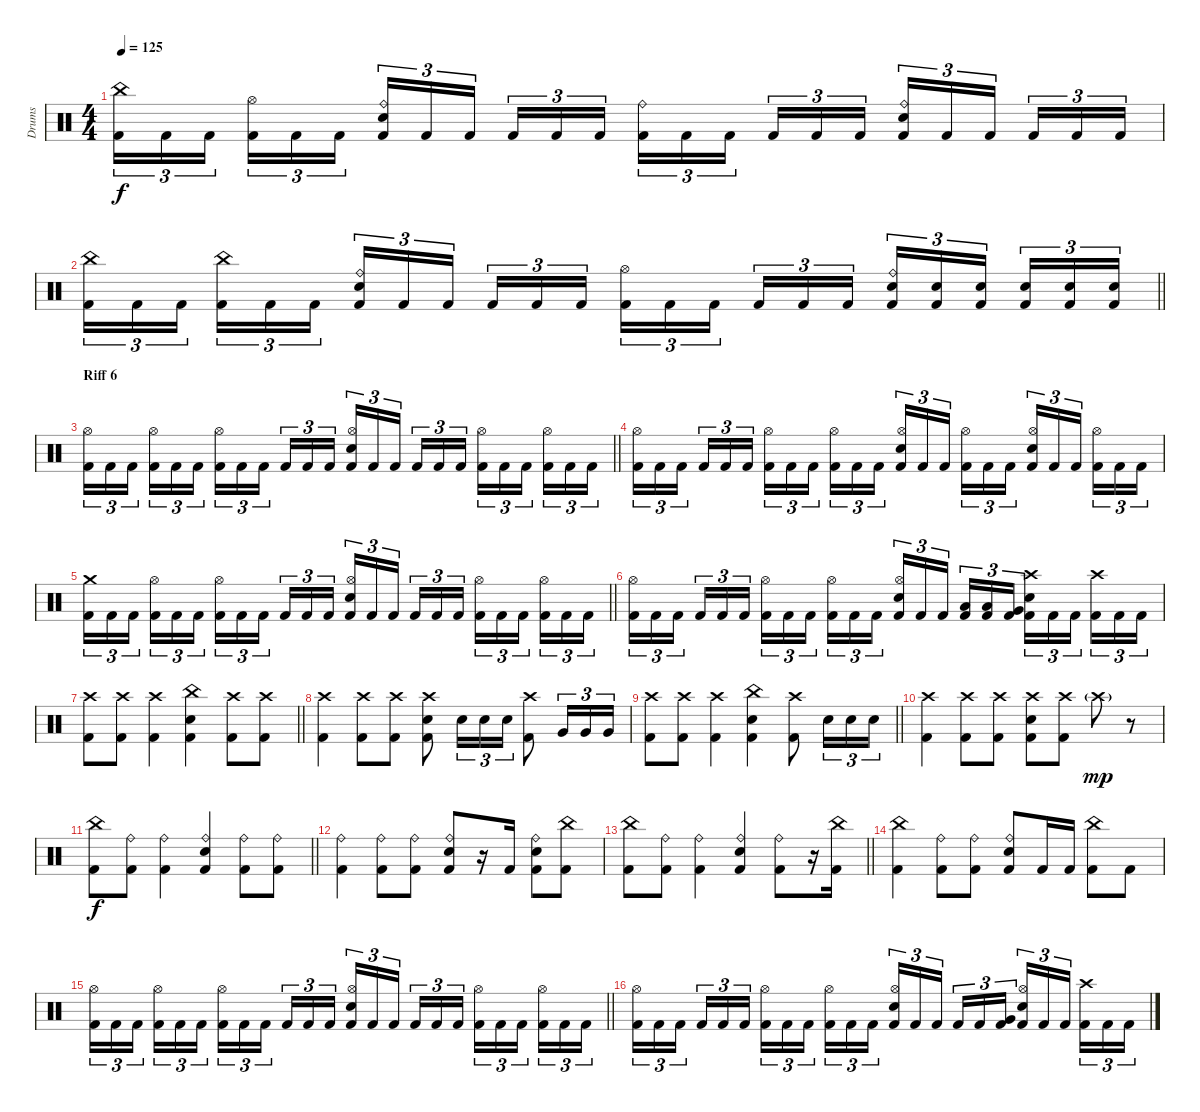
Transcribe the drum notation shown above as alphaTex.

\track ("Drums" "Drums") {instrument percussion}
\staff {score}
\articulation defaults
\ts (4 4)
\tempo 125
\clef neutral
\ks c
("China (hit)" "Kick (hit) 2").16{tu (3 2) dy f} "Kick (hit) 2".16{tu (3 2)} "Kick (hit) 2".16{tu (3 2) beam splitsecondary} ("Hi-Hat (open)" "Kick (hit) 2").16{tu (3 2)} "Kick (hit) 2".16{tu (3 2)} "Kick (hit) 2".16{tu (3 2)} ("Ride (bell)" "Snare (hit) 2" "Kick (hit) 2").16{tu (3 2)} "Kick (hit) 2".16{tu (3 2)} "Kick (hit) 2".16{tu (3 2) beam splitsecondary} "Kick (hit) 2".16{tu (3 2)} "Kick (hit) 2".16{tu (3 2)} "Kick (hit) 2".16{tu (3 2)} ("Ride (bell)" "Kick (hit) 2").16{tu (3 2)} "Kick (hit) 2".16{tu (3 2)} "Kick (hit) 2".16{tu (3 2) beam splitsecondary} "Kick (hit) 2".16{tu (3 2)} "Kick (hit) 2".16{tu (3 2)} "Kick (hit) 2".16{tu (3 2)} ("Ride (bell)" "Snare (hit) 2" "Kick (hit) 2").16{tu (3 2)} "Kick (hit) 2".16{tu (3 2)} "Kick (hit) 2".16{tu (3 2) beam splitsecondary} "Kick (hit) 2".16{tu (3 2)} "Kick (hit) 2".16{tu (3 2)} "Kick (hit) 2".16{tu (3 2)} |
\barLineRight lightlight
("China (hit)" "Kick (hit) 2").16{tu (3 2)} "Kick (hit) 2".16{tu (3 2)} "Kick (hit) 2".16{tu (3 2) beam splitsecondary} ("China (hit)" "Kick (hit) 2").16{tu (3 2)} "Kick (hit) 2".16{tu (3 2)} "Kick (hit) 2".16{tu (3 2)} ("Ride (bell)" "Snare (hit) 2" "Kick (hit) 2").16{tu (3 2)} "Kick (hit) 2".16{tu (3 2)} "Kick (hit) 2".16{tu (3 2) beam splitsecondary} "Kick (hit) 2".16{tu (3 2)} "Kick (hit) 2".16{tu (3 2)} "Kick (hit) 2".16{tu (3 2)} ("Hi-Hat (open)" "Kick (hit) 2").16{tu (3 2)} "Kick (hit) 2".16{tu (3 2)} "Kick (hit) 2".16{tu (3 2) beam splitsecondary} "Kick (hit) 2".16{tu (3 2)} "Kick (hit) 2".16{tu (3 2)} "Kick (hit) 2".16{tu (3 2)} ("Ride (bell)" "Snare (hit) 2" "Kick (hit) 2").16{tu (3 2)} ("Snare (hit) 2" "Kick (hit) 2").16{tu (3 2)} ("Snare (hit) 2" "Kick (hit) 2").16{tu (3 2) beam splitsecondary} ("Snare (hit) 2" "Kick (hit) 2").16{tu (3 2)} ("Snare (hit) 2" "Kick (hit) 2").16{tu (3 2)} ("Snare (hit) 2" "Kick (hit) 2").16{tu (3 2)} |
\section ("" "Riff 6")
\barLineRight lightlight
("Hi-Hat (open)" "Kick (hit) 2").16{tu (3 2)} "Kick (hit) 2".16{tu (3 2)} "Kick (hit) 2".16{tu (3 2) beam splitsecondary} ("Hi-Hat (open)" "Kick (hit) 2").16{tu (3 2)} "Kick (hit) 2".16{tu (3 2)} "Kick (hit) 2".16{tu (3 2)} ("Hi-Hat (open)" "Kick (hit) 2").16{tu (3 2)} "Kick (hit) 2".16{tu (3 2)} "Kick (hit) 2".16{tu (3 2) beam splitsecondary} "Kick (hit) 2".16{tu (3 2)} "Kick (hit) 2".16{tu (3 2)} "Kick (hit) 2".16{tu (3 2)} ("Hi-Hat (open)" "Snare (hit) 2" "Kick (hit) 2").16{tu (3 2)} "Kick (hit) 2".16{tu (3 2)} "Kick (hit) 2".16{tu (3 2) beam splitsecondary} "Kick (hit) 2".16{tu (3 2)} "Kick (hit) 2".16{tu (3 2)} "Kick (hit) 2".16{tu (3 2)} ("Hi-Hat (open)" "Kick (hit) 2").16{tu (3 2)} "Kick (hit) 2".16{tu (3 2)} "Kick (hit) 2".16{tu (3 2) beam splitsecondary} ("Hi-Hat (open)" "Kick (hit) 2").16{tu (3 2)} "Kick (hit) 2".16{tu (3 2)} "Kick (hit) 2".16{tu (3 2)} |
\section ("" "")
("Hi-Hat (open)" "Kick (hit) 2").16{tu (3 2)} "Kick (hit) 2".16{tu (3 2)} "Kick (hit) 2".16{tu (3 2) beam splitsecondary} "Kick (hit) 2".16{tu (3 2)} "Kick (hit) 2".16{tu (3 2)} "Kick (hit) 2".16{tu (3 2)} ("Hi-Hat (open)" "Kick (hit) 2").16{tu (3 2)} "Kick (hit) 2".16{tu (3 2)} "Kick (hit) 2".16{tu (3 2) beam splitsecondary} ("Hi-Hat (open)" "Kick (hit) 2").16{tu (3 2)} "Kick (hit) 2".16{tu (3 2)} "Kick (hit) 2".16{tu (3 2)} ("Hi-Hat (open)" "Snare (hit) 2" "Kick (hit) 2").16{tu (3 2)} "Kick (hit) 2".16{tu (3 2)} "Kick (hit) 2".16{tu (3 2) beam splitsecondary} ("Hi-Hat (open)" "Kick (hit) 2").16{tu (3 2)} "Kick (hit) 2".16{tu (3 2)} "Kick (hit) 2".16{tu (3 2)} ("Hi-Hat (open)" "Snare (hit) 2" "Kick (hit) 2").16{tu (3 2)} "Kick (hit) 2".16{tu (3 2)} "Kick (hit) 2".16{tu (3 2) beam splitsecondary} ("Hi-Hat (open)" "Kick (hit) 2").16{tu (3 2)} "Kick (hit) 2".16{tu (3 2)} "Kick (hit) 2".16{tu (3 2)} |
\barLineRight lightlight
("Crash medium (hit)" "Kick (hit) 2").16{tu (3 2)} "Kick (hit) 2".16{tu (3 2)} "Kick (hit) 2".16{tu (3 2) beam splitsecondary} ("Hi-Hat (open)" "Kick (hit) 2").16{tu (3 2)} "Kick (hit) 2".16{tu (3 2)} "Kick (hit) 2".16{tu (3 2)} ("Hi-Hat (open)" "Kick (hit) 2").16{tu (3 2)} "Kick (hit) 2".16{tu (3 2)} "Kick (hit) 2".16{tu (3 2) beam splitsecondary} "Kick (hit) 2".16{tu (3 2)} "Kick (hit) 2".16{tu (3 2)} "Kick (hit) 2".16{tu (3 2)} ("Hi-Hat (open)" "Snare (hit) 2" "Kick (hit) 2").16{tu (3 2)} "Kick (hit) 2".16{tu (3 2)} "Kick (hit) 2".16{tu (3 2) beam splitsecondary} "Kick (hit) 2".16{tu (3 2)} "Kick (hit) 2".16{tu (3 2)} "Kick (hit) 2".16{tu (3 2)} ("Hi-Hat (open)" "Kick (hit) 2").16{tu (3 2)} "Kick (hit) 2".16{tu (3 2)} "Kick (hit) 2".16{tu (3 2) beam splitsecondary} ("Hi-Hat (open)" "Kick (hit) 2").16{tu (3 2)} "Kick (hit) 2".16{tu (3 2)} "Kick (hit) 2".16{tu (3 2)} |
("Hi-Hat (open)" "Kick (hit) 2").16{tu (3 2)} "Kick (hit) 2".16{tu (3 2)} "Kick (hit) 2".16{tu (3 2) beam splitsecondary} "Kick (hit) 2".16{tu (3 2)} "Kick (hit) 2".16{tu (3 2)} "Kick (hit) 2".16{tu (3 2)} ("Hi-Hat (open)" "Kick (hit) 2").16{tu (3 2)} "Kick (hit) 2".16{tu (3 2)} "Kick (hit) 2".16{tu (3 2) beam splitsecondary} ("Hi-Hat (open)" "Kick (hit) 2").16{tu (3 2)} "Kick (hit) 2".16{tu (3 2)} "Kick (hit) 2".16{tu (3 2)} ("Hi-Hat (open)" "Snare (hit) 2" "Kick (hit) 2").16{tu (3 2)} "Kick (hit) 2".16{tu (3 2)} "Kick (hit) 2".16{tu (3 2) beam splitsecondary} ("Low Tom (hit)" "Kick (hit) 2").16{tu (3 2)} ("Low Tom (hit)" "Kick (hit) 2").16{tu (3 2)} ("Very Low Tom (hit)" "Kick (hit) 2").16{tu (3 2)} ("Crash high (hit)" "Snare (hit) 2" "Kick (hit) 2").16{tu (3 2)} "Kick (hit) 2".16{tu (3 2)} "Kick (hit) 2".16{tu (3 2) beam splitsecondary} ("Crash high (hit)" "Kick (hit) 2").16{tu (3 2)} "Kick (hit) 2".16{tu (3 2)} "Kick (hit) 2".16{tu (3 2)} |
\barLineRight lightlight
("Crash high (hit)" "Kick (hit) 2").8 ("Crash high (hit)" "Kick (hit) 2").8 ("Crash high (hit)" "Kick (hit) 2").4 ("China (hit)" "Snare (hit) 2" "Kick (hit) 2").4 ("Crash high (hit)" "Kick (hit) 2").8 ("Crash high (hit)" "Kick (hit) 2").8 |
("Crash high (hit)" "Kick (hit) 2").4 ("Crash high (hit)" "Kick (hit) 2").8 ("Crash high (hit)" "Kick (hit) 2").8 ("Crash high (hit)" "Snare (hit) 2" "Kick (hit) 2").8 "Snare (hit) 2".16{tu (3 2)} "Snare (hit) 2".16{tu (3 2)} "Snare (hit) 2".16{tu (3 2)} ("Crash high (hit)" "Kick (hit) 2").8 "Very Low Tom (hit)".16{tu (3 2)} "Very Low Tom (hit)".16{tu (3 2)} "Very Low Tom (hit)".16{tu (3 2)} |
\barLineRight lightlight
("Crash high (hit)" "Kick (hit) 2").8 ("Crash high (hit)" "Kick (hit) 2").8 ("Crash high (hit)" "Kick (hit) 2").4 ("China (hit)" "Snare (hit) 2" "Kick (hit) 2").4 ("Crash high (hit)" "Kick (hit) 2").8 "Snare (hit) 2".16{tu (3 2)} "Snare (hit) 2".16{tu (3 2)} "Snare (hit) 2".16{tu (3 2)} |
("Crash high (hit)" "Kick (hit) 2").4 ("Crash high (hit)" "Kick (hit) 2").8 ("Crash high (hit)" "Kick (hit) 2").8 ("Crash high (hit)" "Snare (hit) 2" "Kick (hit) 2").8 ("Crash high (hit)" "Kick (hit) 2").8 "Crash high (hit)"{g}.8{dy mp} r.8 |
\barLineRight lightlight
("China (hit)" "Kick (hit) 2").8{dy f} ("Ride (bell)" "Kick (hit) 2").8 ("Ride (bell)" "Kick (hit) 2").4 ("Ride (bell)" "Snare (hit) 2" "Kick (hit) 2").4 ("Ride (bell)" "Kick (hit) 2").8 ("Ride (bell)" "Kick (hit) 2").8 |
("Ride (bell)" "Kick (hit) 2").4 ("Ride (bell)" "Kick (hit) 2").8 ("Ride (bell)" "Kick (hit) 2").8 ("Ride (bell)" "Snare (hit) 2" "Kick (hit) 2").8 r.16 "Kick (hit) 2".16 ("Ride (bell)" "Snare (hit) 2" "Kick (hit) 2").8 ("China (hit)" "Kick (hit) 2").8 |
\barLineRight lightlight
("China (hit)" "Kick (hit) 2").8 ("Ride (bell)" "Kick (hit) 2").8 ("Ride (bell)" "Kick (hit) 2").4 ("Ride (bell)" "Snare (hit) 2" "Kick (hit) 2").4 ("Ride (bell)" "Kick (hit) 2").8 r.16 ("China (hit)" "Kick (hit) 2").16 |
("China (hit)" "Kick (hit) 2").4 ("Ride (bell)" "Kick (hit) 2").8 ("Ride (bell)" "Kick (hit) 2").8 ("Ride (bell)" "Snare (hit) 2" "Kick (hit) 2").8 "Kick (hit) 2".16 "Kick (hit) 2".16 ("China (hit)" "Kick (hit) 2").8 "Kick (hit) 2".8 |
\barLineRight lightlight
("Hi-Hat (open)" "Kick (hit) 2").16{tu (3 2)} "Kick (hit) 2".16{tu (3 2)} "Kick (hit) 2".16{tu (3 2) beam splitsecondary} ("Hi-Hat (open)" "Kick (hit) 2").16{tu (3 2)} "Kick (hit) 2".16{tu (3 2)} "Kick (hit) 2".16{tu (3 2)} ("Hi-Hat (open)" "Kick (hit) 2").16{tu (3 2)} "Kick (hit) 2".16{tu (3 2)} "Kick (hit) 2".16{tu (3 2) beam splitsecondary} "Kick (hit) 2".16{tu (3 2)} "Kick (hit) 2".16{tu (3 2)} "Kick (hit) 2".16{tu (3 2)} ("Hi-Hat (open)" "Snare (hit) 2" "Kick (hit) 2").16{tu (3 2)} "Kick (hit) 2".16{tu (3 2)} "Kick (hit) 2".16{tu (3 2) beam splitsecondary} "Kick (hit) 2".16{tu (3 2)} "Kick (hit) 2".16{tu (3 2)} "Kick (hit) 2".16{tu (3 2)} ("Hi-Hat (open)" "Kick (hit) 2").16{tu (3 2)} "Kick (hit) 2".16{tu (3 2)} "Kick (hit) 2".16{tu (3 2) beam splitsecondary} ("Hi-Hat (open)" "Kick (hit) 2").16{tu (3 2)} "Kick (hit) 2".16{tu (3 2)} "Kick (hit) 2".16{tu (3 2)} |
("Hi-Hat (open)" "Kick (hit) 2").16{tu (3 2)} "Kick (hit) 2".16{tu (3 2)} "Kick (hit) 2".16{tu (3 2) beam splitsecondary} "Kick (hit) 2".16{tu (3 2)} "Kick (hit) 2".16{tu (3 2)} "Kick (hit) 2".16{tu (3 2)} ("Hi-Hat (open)" "Kick (hit) 2").16{tu (3 2)} "Kick (hit) 2".16{tu (3 2)} "Kick (hit) 2".16{tu (3 2) beam splitsecondary} ("Hi-Hat (open)" "Kick (hit) 2").16{tu (3 2)} "Kick (hit) 2".16{tu (3 2)} "Kick (hit) 2".16{tu (3 2)} ("Hi-Hat (open)" "Snare (hit) 2" "Kick (hit) 2").16{tu (3 2)} "Kick (hit) 2".16{tu (3 2)} "Kick (hit) 2".16{tu (3 2) beam splitsecondary} "Kick (hit) 2".16{tu (3 2)} "Kick (hit) 2".16{tu (3 2)} ("Very Low Tom (hit)" "Kick (hit) 2").16{tu (3 2)} ("Hi-Hat (open)" "Snare (hit) 2" "Kick (hit) 2").16{tu (3 2)} "Kick (hit) 2".16{tu (3 2)} "Kick (hit) 2".16{tu (3 2) beam splitsecondary} ("Crash high (hit)" "Kick (hit) 2").16{tu (3 2)} "Kick (hit) 2".16{tu (3 2)} "Kick (hit) 2".16{tu (3 2)}
